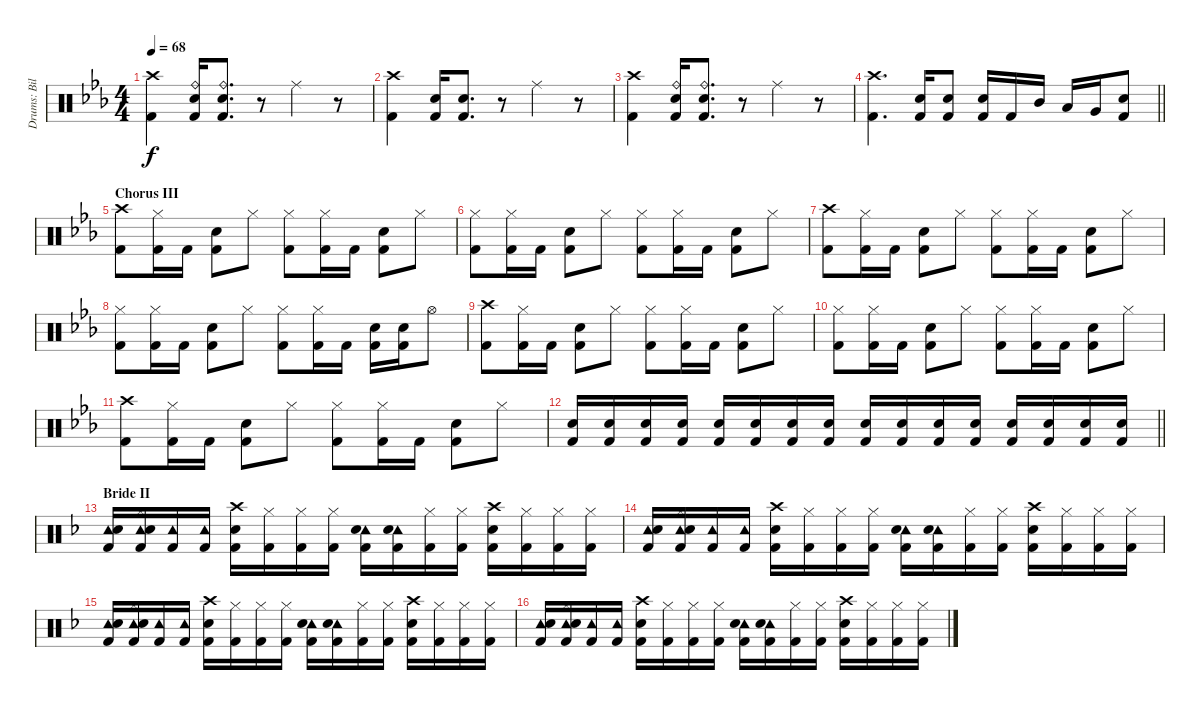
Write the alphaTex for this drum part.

\track ("Drums: Bill" "Drums: Bil") {instrument percussion}
\staff {score}
\articulation defaults
\ts (4 4)
\tempo 68
\clef neutral
\ks eb
("Crash high (hit)" "Kick (hit) 2").4{dy f} ("Ride (bell)" "Snare (hit) 2" "Kick (hit) 2").16 ("Ride (bell)" "Snare (hit) 2" "Kick (hit) 2").8{d} r.8 "Ride (middle)".4 r.8 |
("Crash high (hit)" "Kick (hit) 2").4 ("Snare (hit) 2" "Kick (hit) 2").16 ("Snare (hit) 2" "Kick (hit) 2").8{d} r.8 "Ride (middle)".4 r.8 |
("Crash high (hit)" "Kick (hit) 2").4 ("Ride (bell)" "Snare (hit) 2" "Kick (hit) 2").16 ("Ride (bell)" "Snare (hit) 2" "Kick (hit) 2").8{d} r.8 "Ride (middle)".4 r.8 |
\barLineRight lightlight
("Crash high (hit)" "Kick (hit) 2").4{d} ("Snare (hit) 2" "Kick (hit) 2").16 ("Snare (hit) 2" "Kick (hit) 2").8 ("Snare (hit) 2" "Kick (hit) 2").16 "Kick (hit) 2".16 "Mid Tom (hit)".16 "Low Tom (hit)".16 "Very Low Tom (hit)".16 ("Snare (hit) 2" "Kick (hit) 2").8 |
\section ("" "Chorus III")
("Crash high (hit)" "Kick (hit) 2").8 ("Hi-Hat (closed)" "Kick (hit) 2").16 "Kick (hit) 2".16 ("Snare (hit) 2" "Kick (hit) 2").8 "Hi-Hat (closed)".8 ("Hi-Hat (closed)" "Kick (hit) 2").8 ("Hi-Hat (closed)" "Kick (hit) 2").16 "Kick (hit) 2".16 ("Snare (hit) 2" "Kick (hit) 2").8 "Hi-Hat (closed)".8 |
("Hi-Hat (closed)" "Kick (hit) 2").8 ("Hi-Hat (closed)" "Kick (hit) 2").16 "Kick (hit) 2".16 ("Snare (hit) 2" "Kick (hit) 2").8 "Hi-Hat (closed)".8 ("Hi-Hat (closed)" "Kick (hit) 2").8 ("Hi-Hat (closed)" "Kick (hit) 2").16 "Kick (hit) 2".16 ("Snare (hit) 2" "Kick (hit) 2").8 "Hi-Hat (closed)".8 |
("Crash high (hit)" "Kick (hit) 2").8 ("Hi-Hat (closed)" "Kick (hit) 2").16 "Kick (hit) 2".16 ("Snare (hit) 2" "Kick (hit) 2").8 "Hi-Hat (closed)".8 ("Hi-Hat (closed)" "Kick (hit) 2").8 ("Hi-Hat (closed)" "Kick (hit) 2").16 "Kick (hit) 2".16 ("Snare (hit) 2" "Kick (hit) 2").8 "Hi-Hat (closed)".8 |
("Hi-Hat (closed)" "Kick (hit) 2").8 ("Hi-Hat (closed)" "Kick (hit) 2").16 "Kick (hit) 2".16 ("Snare (hit) 2" "Kick (hit) 2").8 "Hi-Hat (closed)".8 ("Hi-Hat (closed)" "Kick (hit) 2").8 ("Hi-Hat (closed)" "Kick (hit) 2").16 "Kick (hit) 2".16 ("Snare (hit) 2" "Kick (hit) 2").16 ("Snare (hit) 2" "Kick (hit) 2").16 "Hi-Hat (open)".8 |
("Crash high (hit)" "Kick (hit) 2").8 ("Hi-Hat (closed)" "Kick (hit) 2").16 "Kick (hit) 2".16 ("Snare (hit) 2" "Kick (hit) 2").8 "Hi-Hat (closed)".8 ("Hi-Hat (closed)" "Kick (hit) 2").8 ("Hi-Hat (closed)" "Kick (hit) 2").16 "Kick (hit) 2".16 ("Snare (hit) 2" "Kick (hit) 2").8 "Hi-Hat (closed)".8 |
("Hi-Hat (closed)" "Kick (hit) 2").8 ("Hi-Hat (closed)" "Kick (hit) 2").16 "Kick (hit) 2".16 ("Snare (hit) 2" "Kick (hit) 2").8 "Hi-Hat (closed)".8 ("Hi-Hat (closed)" "Kick (hit) 2").8 ("Hi-Hat (closed)" "Kick (hit) 2").16 "Kick (hit) 2".16 ("Snare (hit) 2" "Kick (hit) 2").8 "Hi-Hat (closed)".8 |
("Crash high (hit)" "Kick (hit) 2").8 ("Hi-Hat (closed)" "Kick (hit) 2").16 "Kick (hit) 2".16 ("Snare (hit) 2" "Kick (hit) 2").8 "Hi-Hat (closed)".8 ("Hi-Hat (closed)" "Kick (hit) 2").8 ("Hi-Hat (closed)" "Kick (hit) 2").16 "Kick (hit) 2".16 ("Snare (hit) 2" "Kick (hit) 2").8 "Hi-Hat (closed)".8 |
\barLineRight lightlight
("Snare (hit) 2" "Kick (hit) 2").16 ("Snare (hit) 2" "Kick (hit) 2").16 ("Snare (hit) 2" "Kick (hit) 2").16 ("Snare (hit) 2" "Kick (hit) 2").16 ("Snare (hit) 2" "Kick (hit) 2").16 ("Snare (hit) 2" "Kick (hit) 2").16 ("Snare (hit) 2" "Kick (hit) 2").16 ("Snare (hit) 2" "Kick (hit) 2").16 ("Snare (hit) 2" "Kick (hit) 2").16 ("Snare (hit) 2" "Kick (hit) 2").16 ("Snare (hit) 2" "Kick (hit) 2").16 ("Snare (hit) 2" "Kick (hit) 2").16 ("Snare (hit) 2" "Kick (hit) 2").16 ("Snare (hit) 2" "Kick (hit) 2").16 ("Snare (hit) 2" "Kick (hit) 2").16 ("Snare (hit) 2" "Kick (hit) 2").16 |
\section ("" "Bride II")
\ks dminor
("Tambourine (hit)" "Electric Snare (hit)" "Kick (hit) 2").16 ("Tambourine (hit)" "Hi-Hat (closed)" "Electric Snare (hit)" "Kick (hit) 2").16 ("Tambourine (hit)" "Kick (hit) 2").16 ("Tambourine (hit)" "Kick (hit) 2").16 ("Crash high (hit)" "Electric Snare (hit)" "Kick (hit) 2").16 ("Hi-Hat (closed)" "Kick (hit) 2").16 ("Hi-Hat (closed)" "Kick (hit) 2").16 ("Hi-Hat (closed)" "Kick (hit) 2").16 ("Tambourine (hit)" "Electric Snare (hit)" "Kick (hit) 2").16 ("Tambourine (hit)" "Electric Snare (hit)" "Kick (hit) 2").16 ("Hi-Hat (closed)" "Kick (hit) 2").16 ("Hi-Hat (closed)" "Kick (hit) 2").16 ("Crash high (hit)" "Electric Snare (hit)" "Kick (hit) 2").16 ("Hi-Hat (closed)" "Kick (hit) 2").16 ("Hi-Hat (closed)" "Kick (hit) 2").16 ("Hi-Hat (closed)" "Kick (hit) 2").16 |
("Tambourine (hit)" "Electric Snare (hit)" "Kick (hit) 2").16 ("Tambourine (hit)" "Hi-Hat (closed)" "Electric Snare (hit)" "Kick (hit) 2").16 ("Tambourine (hit)" "Kick (hit) 2").16 ("Tambourine (hit)" "Kick (hit) 2").16 ("Crash high (hit)" "Electric Snare (hit)" "Kick (hit) 2").16 ("Hi-Hat (closed)" "Kick (hit) 2").16 ("Hi-Hat (closed)" "Kick (hit) 2").16 ("Hi-Hat (closed)" "Kick (hit) 2").16 ("Tambourine (hit)" "Electric Snare (hit)" "Kick (hit) 2").16 ("Tambourine (hit)" "Electric Snare (hit)" "Kick (hit) 2").16 ("Hi-Hat (closed)" "Kick (hit) 2").16 ("Hi-Hat (closed)" "Kick (hit) 2").16 ("Crash high (hit)" "Electric Snare (hit)" "Kick (hit) 2").16 ("Hi-Hat (closed)" "Kick (hit) 2").16 ("Hi-Hat (closed)" "Kick (hit) 2").16 ("Hi-Hat (closed)" "Kick (hit) 2").16 |
("Tambourine (hit)" "Electric Snare (hit)" "Kick (hit) 2").16 ("Tambourine (hit)" "Hi-Hat (closed)" "Electric Snare (hit)" "Kick (hit) 2").16 ("Tambourine (hit)" "Kick (hit) 2").16 ("Tambourine (hit)" "Kick (hit) 2").16 ("Crash high (hit)" "Electric Snare (hit)" "Kick (hit) 2").16 ("Hi-Hat (closed)" "Kick (hit) 2").16 ("Hi-Hat (closed)" "Kick (hit) 2").16 ("Hi-Hat (closed)" "Kick (hit) 2").16 ("Tambourine (hit)" "Electric Snare (hit)" "Kick (hit) 2").16 ("Tambourine (hit)" "Electric Snare (hit)" "Kick (hit) 2").16 ("Hi-Hat (closed)" "Kick (hit) 2").16 ("Hi-Hat (closed)" "Kick (hit) 2").16 ("Crash high (hit)" "Electric Snare (hit)" "Kick (hit) 2").16 ("Hi-Hat (closed)" "Kick (hit) 2").16 ("Hi-Hat (closed)" "Kick (hit) 2").16 ("Hi-Hat (closed)" "Kick (hit) 2").16 |
("Tambourine (hit)" "Electric Snare (hit)" "Kick (hit) 2").16 ("Tambourine (hit)" "Hi-Hat (closed)" "Electric Snare (hit)" "Kick (hit) 2").16 ("Tambourine (hit)" "Kick (hit) 2").16 ("Tambourine (hit)" "Kick (hit) 2").16 ("Crash high (hit)" "Electric Snare (hit)" "Kick (hit) 2").16 ("Hi-Hat (closed)" "Kick (hit) 2").16 ("Hi-Hat (closed)" "Kick (hit) 2").16 ("Hi-Hat (closed)" "Kick (hit) 2").16 ("Tambourine (hit)" "Electric Snare (hit)" "Kick (hit) 2").16 ("Tambourine (hit)" "Electric Snare (hit)" "Kick (hit) 2").16 ("Hi-Hat (closed)" "Kick (hit) 2").16 ("Hi-Hat (closed)" "Kick (hit) 2").16 ("Crash high (hit)" "Electric Snare (hit)" "Kick (hit) 2").16 ("Hi-Hat (closed)" "Kick (hit) 2").16 ("Hi-Hat (closed)" "Kick (hit) 2").16 ("Hi-Hat (closed)" "Kick (hit) 2").16
